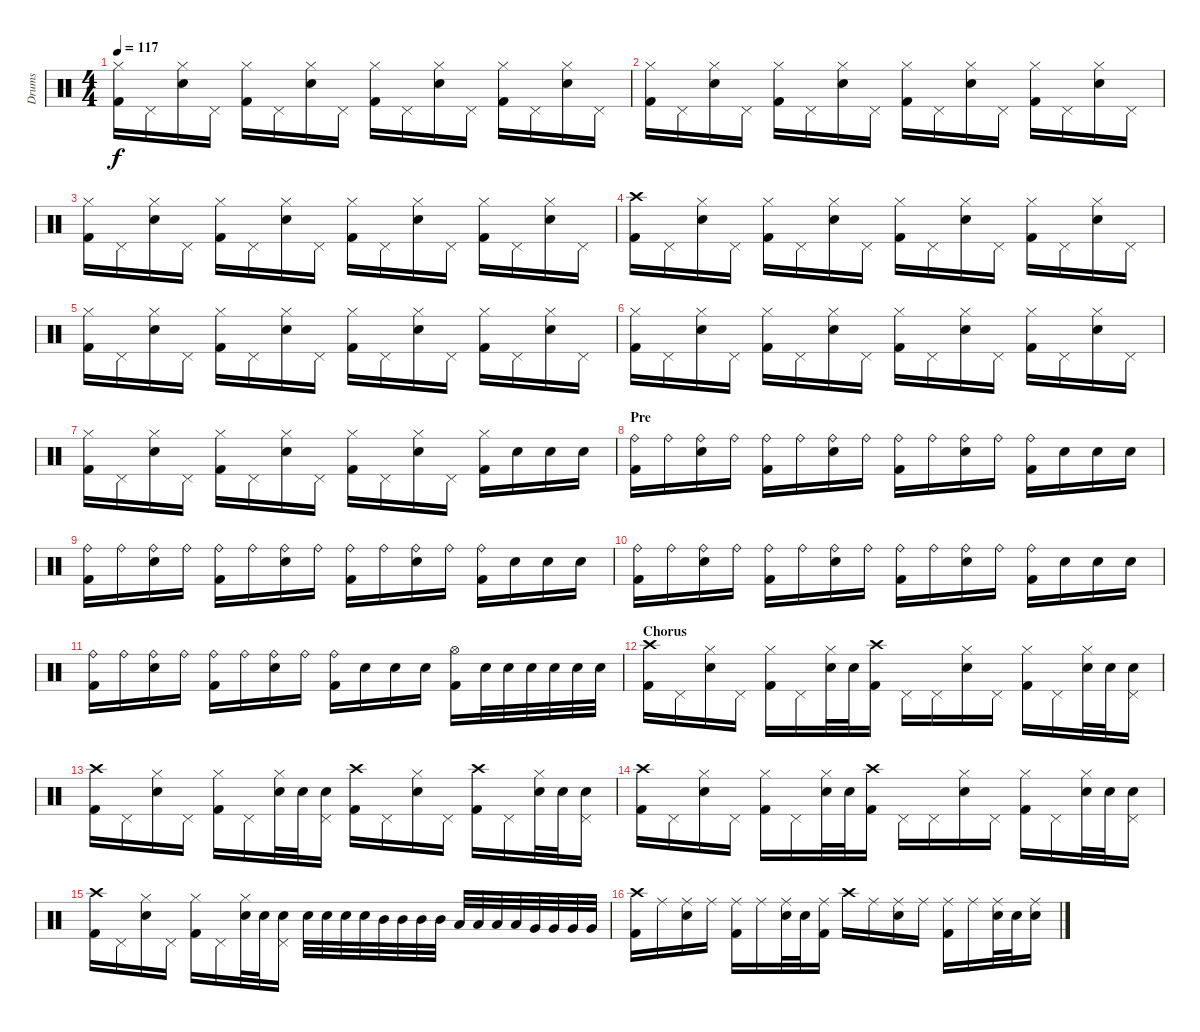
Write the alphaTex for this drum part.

\track ("Drums" "Drums") {instrument percussion}
\staff {score}
\articulation defaults
\ts (4 4)
\tempo 117
\clef neutral
\ks c
("Hi-Hat (closed)" "Kick (hit) 2").16{dy f} "Pedal Hi-Hat (hit)".16 ("Hi-Hat (closed)" "Electric Snare (hit)").16 "Pedal Hi-Hat (hit)".16 ("Hi-Hat (closed)" "Kick (hit) 2").16 "Pedal Hi-Hat (hit)".16 ("Hi-Hat (closed)" "Electric Snare (hit)").16 "Pedal Hi-Hat (hit)".16 ("Hi-Hat (closed)" "Kick (hit) 2").16 "Pedal Hi-Hat (hit)".16 ("Hi-Hat (closed)" "Electric Snare (hit)").16 "Pedal Hi-Hat (hit)".16 ("Hi-Hat (closed)" "Kick (hit) 2").16 "Pedal Hi-Hat (hit)".16 ("Hi-Hat (closed)" "Electric Snare (hit)").16 "Pedal Hi-Hat (hit)".16 |
("Hi-Hat (closed)" "Kick (hit) 2").16 "Pedal Hi-Hat (hit)".16 ("Hi-Hat (closed)" "Electric Snare (hit)").16 "Pedal Hi-Hat (hit)".16 ("Hi-Hat (closed)" "Kick (hit) 2").16 "Pedal Hi-Hat (hit)".16 ("Hi-Hat (closed)" "Electric Snare (hit)").16 "Pedal Hi-Hat (hit)".16 ("Hi-Hat (closed)" "Kick (hit) 2").16 "Pedal Hi-Hat (hit)".16 ("Hi-Hat (closed)" "Electric Snare (hit)").16 "Pedal Hi-Hat (hit)".16 ("Hi-Hat (closed)" "Kick (hit) 2").16 "Pedal Hi-Hat (hit)".16 ("Hi-Hat (closed)" "Electric Snare (hit)").16 "Pedal Hi-Hat (hit)".16 |
("Hi-Hat (closed)" "Kick (hit) 2").16 "Pedal Hi-Hat (hit)".16 ("Hi-Hat (closed)" "Electric Snare (hit)").16 "Pedal Hi-Hat (hit)".16 ("Hi-Hat (closed)" "Kick (hit) 2").16 "Pedal Hi-Hat (hit)".16 ("Hi-Hat (closed)" "Electric Snare (hit)").16 "Pedal Hi-Hat (hit)".16 ("Hi-Hat (closed)" "Kick (hit) 2").16 "Pedal Hi-Hat (hit)".16 ("Hi-Hat (closed)" "Electric Snare (hit)").16 "Pedal Hi-Hat (hit)".16 ("Hi-Hat (closed)" "Kick (hit) 2").16 "Pedal Hi-Hat (hit)".16 ("Hi-Hat (closed)" "Electric Snare (hit)").16 "Pedal Hi-Hat (hit)".16 |
("Crash high (hit)" "Kick (hit) 2").16 "Pedal Hi-Hat (hit)".16 ("Hi-Hat (closed)" "Electric Snare (hit)").16 "Pedal Hi-Hat (hit)".16 ("Hi-Hat (closed)" "Kick (hit) 2").16 "Pedal Hi-Hat (hit)".16 ("Hi-Hat (closed)" "Electric Snare (hit)").16 "Pedal Hi-Hat (hit)".16 ("Hi-Hat (closed)" "Kick (hit) 2").16 "Pedal Hi-Hat (hit)".16 ("Hi-Hat (closed)" "Electric Snare (hit)").16 "Pedal Hi-Hat (hit)".16 ("Hi-Hat (closed)" "Kick (hit) 2").16 "Pedal Hi-Hat (hit)".16 ("Hi-Hat (closed)" "Electric Snare (hit)").16 "Pedal Hi-Hat (hit)".16 |
("Hi-Hat (closed)" "Kick (hit) 2").16 "Pedal Hi-Hat (hit)".16 ("Hi-Hat (closed)" "Electric Snare (hit)").16 "Pedal Hi-Hat (hit)".16 ("Hi-Hat (closed)" "Kick (hit) 2").16 "Pedal Hi-Hat (hit)".16 ("Hi-Hat (closed)" "Electric Snare (hit)").16 "Pedal Hi-Hat (hit)".16 ("Hi-Hat (closed)" "Kick (hit) 2").16 "Pedal Hi-Hat (hit)".16 ("Hi-Hat (closed)" "Electric Snare (hit)").16 "Pedal Hi-Hat (hit)".16 ("Hi-Hat (closed)" "Kick (hit) 2").16 "Pedal Hi-Hat (hit)".16 ("Hi-Hat (closed)" "Electric Snare (hit)").16 "Pedal Hi-Hat (hit)".16 |
("Hi-Hat (closed)" "Kick (hit) 2").16 "Pedal Hi-Hat (hit)".16 ("Hi-Hat (closed)" "Electric Snare (hit)").16 "Pedal Hi-Hat (hit)".16 ("Hi-Hat (closed)" "Kick (hit) 2").16 "Pedal Hi-Hat (hit)".16 ("Hi-Hat (closed)" "Electric Snare (hit)").16 "Pedal Hi-Hat (hit)".16 ("Hi-Hat (closed)" "Kick (hit) 2").16 "Pedal Hi-Hat (hit)".16 ("Hi-Hat (closed)" "Electric Snare (hit)").16 "Pedal Hi-Hat (hit)".16 ("Hi-Hat (closed)" "Kick (hit) 2").16 "Pedal Hi-Hat (hit)".16 ("Hi-Hat (closed)" "Electric Snare (hit)").16 "Pedal Hi-Hat (hit)".16 |
("Hi-Hat (closed)" "Kick (hit) 2").16 "Pedal Hi-Hat (hit)".16 ("Hi-Hat (closed)" "Electric Snare (hit)").16 "Pedal Hi-Hat (hit)".16 ("Hi-Hat (closed)" "Kick (hit) 2").16 "Pedal Hi-Hat (hit)".16 ("Hi-Hat (closed)" "Electric Snare (hit)").16 "Pedal Hi-Hat (hit)".16 ("Hi-Hat (closed)" "Kick (hit) 2").16 "Pedal Hi-Hat (hit)".16 ("Hi-Hat (closed)" "Electric Snare (hit)").16 "Pedal Hi-Hat (hit)".16 ("Hi-Hat (closed)" "Kick (hit) 2").16 "Electric Snare (hit)".16 "Electric Snare (hit)".16 "Electric Snare (hit)".16 |
\section ("" "Pre")
("Ride (bell)" "Kick (hit) 2").16 "Ride (bell)".16 ("Ride (bell)" "Electric Snare (hit)").16 "Ride (bell)".16 ("Ride (bell)" "Kick (hit) 2").16 "Ride (bell)".16 ("Ride (bell)" "Electric Snare (hit)").16 "Ride (bell)".16 ("Ride (bell)" "Kick (hit) 2").16 "Ride (bell)".16 ("Ride (bell)" "Electric Snare (hit)").16 "Ride (bell)".16 ("Ride (bell)" "Kick (hit) 2").16 "Electric Snare (hit)".16 "Electric Snare (hit)".16 "Electric Snare (hit)".16 |
("Ride (bell)" "Kick (hit) 2").16 "Ride (bell)".16 ("Ride (bell)" "Electric Snare (hit)").16 "Ride (bell)".16 ("Ride (bell)" "Kick (hit) 2").16 "Ride (bell)".16 ("Ride (bell)" "Electric Snare (hit)").16 "Ride (bell)".16 ("Ride (bell)" "Kick (hit) 2").16 "Ride (bell)".16 ("Ride (bell)" "Electric Snare (hit)").16 "Ride (bell)".16 ("Ride (bell)" "Kick (hit) 2").16 "Electric Snare (hit)".16 "Electric Snare (hit)".16 "Electric Snare (hit)".16 |
("Ride (bell)" "Kick (hit) 2").16 "Ride (bell)".16 ("Ride (bell)" "Electric Snare (hit)").16 "Ride (bell)".16 ("Ride (bell)" "Kick (hit) 2").16 "Ride (bell)".16 ("Ride (bell)" "Electric Snare (hit)").16 "Ride (bell)".16 ("Ride (bell)" "Kick (hit) 2").16 "Ride (bell)".16 ("Ride (bell)" "Electric Snare (hit)").16 "Ride (bell)".16 ("Ride (bell)" "Kick (hit) 2").16 "Electric Snare (hit)".16 "Electric Snare (hit)".16 "Electric Snare (hit)".16 |
("Ride (bell)" "Kick (hit) 2").16 "Ride (bell)".16 ("Ride (bell)" "Electric Snare (hit)").16 "Ride (bell)".16 ("Ride (bell)" "Kick (hit) 2").16 "Ride (bell)".16 ("Ride (bell)" "Electric Snare (hit)").16 "Ride (bell)".16 ("Ride (bell)" "Kick (hit) 2").16 "Electric Snare (hit)".16 "Electric Snare (hit)".16 "Electric Snare (hit)".16 ("Hi-Hat (open)" "Kick (hit) 2").16 "Electric Snare (hit)".32 "Electric Snare (hit)".32 "Electric Snare (hit)".32 "Electric Snare (hit)".32 "Electric Snare (hit)".32 "Electric Snare (hit)".32 |
\section ("" "Chorus")
("Crash high (hit)" "Kick (hit) 2").16 "Pedal Hi-Hat (hit)".16 ("Hi-Hat (closed)" "Electric Snare (hit)").16 "Pedal Hi-Hat (hit)".16 ("Hi-Hat (closed)" "Kick (hit) 2").16 "Pedal Hi-Hat (hit)".16 ("Hi-Hat (closed)" "Electric Snare (hit)").32 "Electric Snare (hit)".32 ("Crash high (hit)" "Kick (hit) 2").16 "Pedal Hi-Hat (hit)".16 "Pedal Hi-Hat (hit)".16 ("Hi-Hat (closed)" "Electric Snare (hit)").16 "Pedal Hi-Hat (hit)".16 ("Hi-Hat (closed)" "Kick (hit) 2").16 "Pedal Hi-Hat (hit)".16 ("Hi-Hat (closed)" "Electric Snare (hit)").32 "Electric Snare (hit)".32 ("Pedal Hi-Hat (hit)" "Electric Snare (hit)").16 |
("Crash high (hit)" "Kick (hit) 2").16 "Pedal Hi-Hat (hit)".16 ("Hi-Hat (closed)" "Electric Snare (hit)").16 "Pedal Hi-Hat (hit)".16 ("Hi-Hat (closed)" "Kick (hit) 2").16 "Pedal Hi-Hat (hit)".16 ("Hi-Hat (closed)" "Electric Snare (hit)").32 "Electric Snare (hit)".32 ("Pedal Hi-Hat (hit)" "Electric Snare (hit)").16 ("Crash high (hit)" "Kick (hit) 2").16 "Pedal Hi-Hat (hit)".16 ("Hi-Hat (closed)" "Electric Snare (hit)").16 "Pedal Hi-Hat (hit)".16 ("Crash high (hit)" "Kick (hit) 2").16 "Pedal Hi-Hat (hit)".16 ("Hi-Hat (closed)" "Electric Snare (hit)").32 "Electric Snare (hit)".32 ("Pedal Hi-Hat (hit)" "Electric Snare (hit)").16 |
("Crash high (hit)" "Kick (hit) 2").16 "Pedal Hi-Hat (hit)".16 ("Hi-Hat (closed)" "Electric Snare (hit)").16 "Pedal Hi-Hat (hit)".16 ("Hi-Hat (closed)" "Kick (hit) 2").16 "Pedal Hi-Hat (hit)".16 ("Hi-Hat (closed)" "Electric Snare (hit)").32 "Electric Snare (hit)".32 ("Crash high (hit)" "Kick (hit) 2").16 "Pedal Hi-Hat (hit)".16 "Pedal Hi-Hat (hit)".16 ("Hi-Hat (closed)" "Electric Snare (hit)").16 "Pedal Hi-Hat (hit)".16 ("Hi-Hat (closed)" "Kick (hit) 2").16 "Pedal Hi-Hat (hit)".16 ("Hi-Hat (closed)" "Electric Snare (hit)").32 "Electric Snare (hit)".32 ("Pedal Hi-Hat (hit)" "Electric Snare (hit)").16 |
("Crash high (hit)" "Kick (hit) 2").16 "Pedal Hi-Hat (hit)".16 ("Hi-Hat (closed)" "Electric Snare (hit)").16 "Pedal Hi-Hat (hit)".16 ("Hi-Hat (closed)" "Kick (hit) 2").16 "Pedal Hi-Hat (hit)".16 ("Hi-Hat (closed)" "Electric Snare (hit)").32 "Electric Snare (hit)".32 ("Pedal Hi-Hat (hit)" "Electric Snare (hit)").16 "Electric Snare (hit)".32 "Electric Snare (hit)".32 "Electric Snare (hit)".32 "Electric Snare (hit)".32 "Mid Tom (hit)".32 "Mid Tom (hit)".32 "Mid Tom (hit)".32 "Mid Tom (hit)".32 "Low Tom (hit)".32 "Low Tom (hit)".32 "Low Tom (hit)".32 "Low Tom (hit)".32 "Very Low Tom (hit)".32 "Very Low Tom (hit)".32 "Very Low Tom (hit)".32 "Very Low Tom (hit)".32 |
("Crash high (hit)" "Kick (hit) 2").16 "Ride (middle)".16 ("Ride (middle)" "Electric Snare (hit)").16 "Ride (middle)".16 ("Ride (middle)" "Kick (hit) 2").16 "Ride (middle)".16 ("Ride (middle)" "Electric Snare (hit)").32 "Electric Snare (hit)".32 ("Ride (middle)" "Kick (hit) 2").16 "Crash high (hit)".16 "Ride (middle)".16 ("Ride (middle)" "Electric Snare (hit)").16 "Ride (middle)".16 ("Ride (middle)" "Kick (hit) 2").16 "Ride (middle)".16 ("Ride (middle)" "Electric Snare (hit)").32 "Electric Snare (hit)".32 ("Ride (middle)" "Electric Snare (hit)").16
